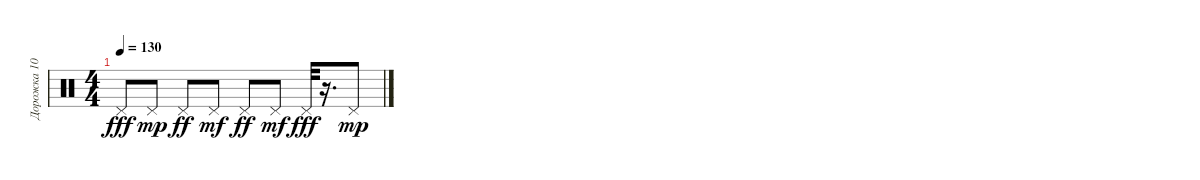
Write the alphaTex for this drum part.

\track ("Дорожка 10" "Дорожка 10") {instrument percussion}
\staff {score}
\articulation defaults
\ts (4 4)
\tempo 130
\clef neutral
\ks c "Pedal Hi-Hat (hit)".8{dy fff} "Pedal Hi-Hat (hit)".8{dy mp} "Pedal Hi-Hat (hit)".8{dy ff} "Pedal Hi-Hat (hit)".8{dy mf} "Pedal Hi-Hat (hit)".8{dy ff} "Pedal Hi-Hat (hit)".8{dy mf} "Pedal Hi-Hat (hit)".32{dy fff}
r.16{d} "Pedal Hi-Hat (hit)".8{dy mp}
